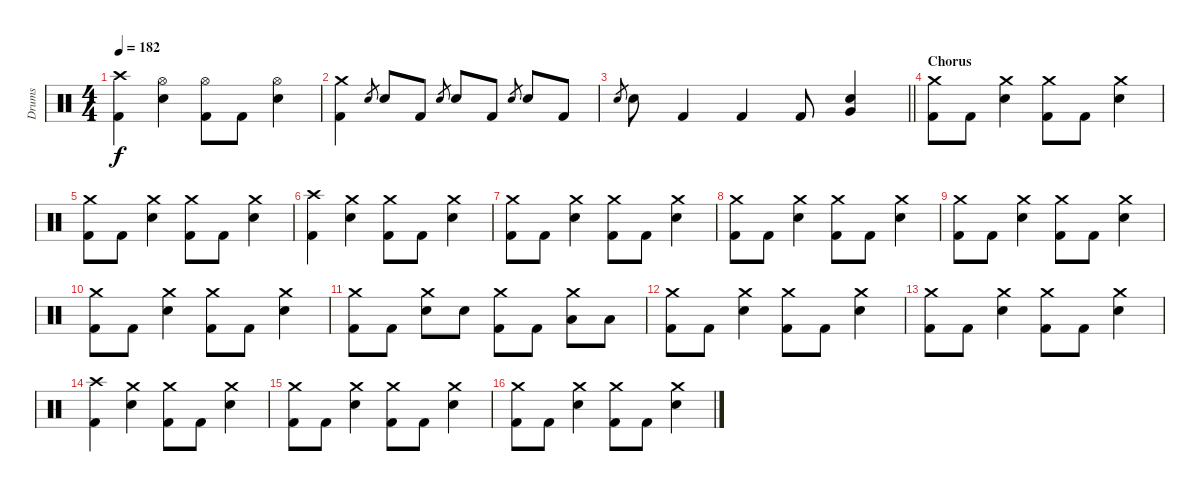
\track ("Drums" "Drums") {instrument percussion}
\staff {score}
\articulation defaults
\ts (4 4)
\tempo 182
\clef neutral
\ks c
("Crash high (hit)" "Kick (hit) 2").4{dy f} ("Hi-Hat (open)" "Electric Snare (hit)").4 ("Hi-Hat (open)" "Kick (hit) 2").8 "Kick (hit) 2".8 ("Hi-Hat (open)" "Electric Snare (hit)").4 |
("Crash medium (hit)" "Kick (hit) 2").4 "Electric Snare (hit)".8{gr} "Electric Snare (hit)".8 "Kick (hit) 2".8 "Electric Snare (hit)".8{gr} "Electric Snare (hit)".8 "Kick (hit) 2".8 "Electric Snare (hit)".8{gr} "Electric Snare (hit)".8 "Kick (hit) 2".8 |
\barLineRight lightlight "Electric Snare (hit)".8{gr} "Electric Snare (hit)".8 "Kick (hit) 2".4 "Kick (hit) 2".4 "Kick (hit) 2".8
("Very Low Tom (hit)" "Electric Snare (hit)").4 |
\section ("" "Chorus")
("Crash medium (hit)" "Kick (hit) 2").8 "Kick (hit) 2".8 ("Crash medium (hit)" "Electric Snare (hit)").4 ("Crash medium (hit)" "Kick (hit) 2").8 "Kick (hit) 2".8 ("Crash medium (hit)" "Electric Snare (hit)").4 |
("Crash medium (hit)" "Kick (hit) 2").8 "Kick (hit) 2".8 ("Crash medium (hit)" "Electric Snare (hit)").4 ("Crash medium (hit)" "Kick (hit) 2").8 "Kick (hit) 2".8 ("Crash medium (hit)" "Electric Snare (hit)").4 |
("Crash high (hit)" "Kick (hit) 2").4 ("Crash medium (hit)" "Electric Snare (hit)").4 ("Crash medium (hit)" "Kick (hit) 2").8 "Kick (hit) 2".8 ("Crash medium (hit)" "Electric Snare (hit)").4 |
("Crash medium (hit)" "Kick (hit) 2").8 "Kick (hit) 2".8 ("Crash medium (hit)" "Electric Snare (hit)").4 ("Crash medium (hit)" "Kick (hit) 2").8 "Kick (hit) 2".8 ("Crash medium (hit)" "Electric Snare (hit)").4 |
("Crash medium (hit)" "Kick (hit) 2").8 "Kick (hit) 2".8 ("Crash medium (hit)" "Electric Snare (hit)").4 ("Crash medium (hit)" "Kick (hit) 2").8 "Kick (hit) 2".8 ("Crash medium (hit)" "Electric Snare (hit)").4 |
("Crash medium (hit)" "Kick (hit) 2").8 "Kick (hit) 2".8 ("Crash medium (hit)" "Electric Snare (hit)").4 ("Crash medium (hit)" "Kick (hit) 2").8 "Kick (hit) 2".8 ("Crash medium (hit)" "Electric Snare (hit)").4 |
("Crash medium (hit)" "Kick (hit) 2").8 "Kick (hit) 2".8 ("Crash medium (hit)" "Electric Snare (hit)").4 ("Crash medium (hit)" "Kick (hit) 2").8 "Kick (hit) 2".8 ("Crash medium (hit)" "Electric Snare (hit)").4 |
("Crash medium (hit)" "Kick (hit) 2").8 "Kick (hit) 2".8 ("Crash medium (hit)" "Electric Snare (hit)").8 "Electric Snare (hit)".8 ("Crash medium (hit)" "Kick (hit) 2").8 "Kick (hit) 2".8 ("Crash medium (hit)" "Low Tom (hit)").8 "Low Tom (hit)".8 |
("Crash medium (hit)" "Kick (hit) 2").8 "Kick (hit) 2".8 ("Crash medium (hit)" "Electric Snare (hit)").4 ("Crash medium (hit)" "Kick (hit) 2").8 "Kick (hit) 2".8 ("Crash medium (hit)" "Electric Snare (hit)").4 |
("Crash medium (hit)" "Kick (hit) 2").8 "Kick (hit) 2".8 ("Crash medium (hit)" "Electric Snare (hit)").4 ("Crash medium (hit)" "Kick (hit) 2").8 "Kick (hit) 2".8 ("Crash medium (hit)" "Electric Snare (hit)").4 |
("Crash high (hit)" "Kick (hit) 2").4 ("Crash medium (hit)" "Electric Snare (hit)").4 ("Crash medium (hit)" "Kick (hit) 2").8 "Kick (hit) 2".8 ("Crash medium (hit)" "Electric Snare (hit)").4 |
("Crash medium (hit)" "Kick (hit) 2").8 "Kick (hit) 2".8 ("Crash medium (hit)" "Electric Snare (hit)").4 ("Crash medium (hit)" "Kick (hit) 2").8 "Kick (hit) 2".8 ("Crash medium (hit)" "Electric Snare (hit)").4 |
("Crash medium (hit)" "Kick (hit) 2").8 "Kick (hit) 2".8 ("Crash medium (hit)" "Electric Snare (hit)").4 ("Crash medium (hit)" "Kick (hit) 2").8 "Kick (hit) 2".8 ("Crash medium (hit)" "Electric Snare (hit)").4
